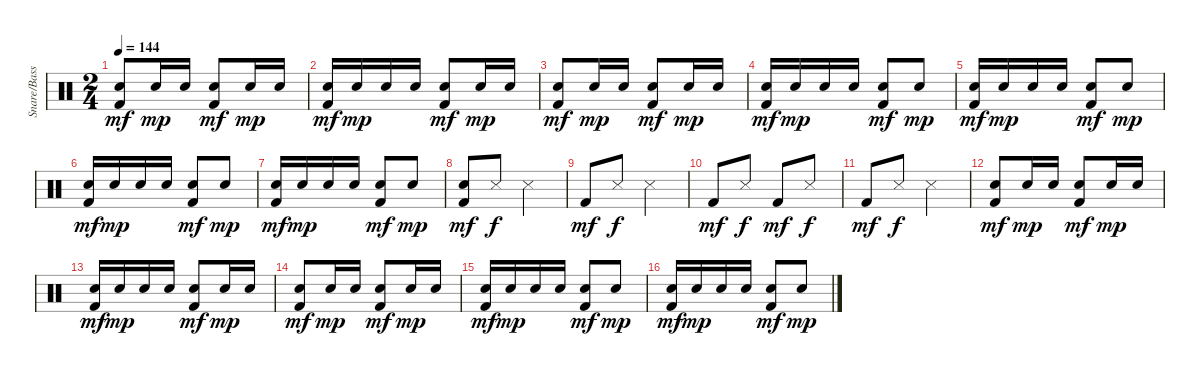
\track ("Snare/Bass Dr       " "Snare/Bass") {instrument percussion}
\staff {score}
\articulation defaults
\ts (2 4)
\tempo 144
\clef neutral
\ks c
("Snare (hit) 2" "Kick (hit) 2").8{dy mf} "Snare (hit) 2".16{dy mp} "Snare (hit) 2".16 ("Snare (hit) 2" "Kick (hit) 2").8{dy mf} "Snare (hit) 2".16{dy mp} "Snare (hit) 2".16 |
("Snare (hit) 2" "Kick (hit) 2").16{dy mf} "Snare (hit) 2".16{dy mp} "Snare (hit) 2".16 "Snare (hit) 2".16 ("Snare (hit) 2" "Kick (hit) 2").8{dy mf} "Snare (hit) 2".16{dy mp} "Snare (hit) 2".16 |
("Snare (hit) 2" "Kick (hit) 2").8{dy mf} "Snare (hit) 2".16{dy mp} "Snare (hit) 2".16 ("Snare (hit) 2" "Kick (hit) 2").8{dy mf} "Snare (hit) 2".16{dy mp} "Snare (hit) 2".16 |
("Snare (hit) 2" "Kick (hit) 2").16{dy mf} "Snare (hit) 2".16{dy mp} "Snare (hit) 2".16 "Snare (hit) 2".16 ("Snare (hit) 2" "Kick (hit) 2").8{dy mf} "Snare (hit) 2".8{dy mp} |
("Snare (hit) 2" "Kick (hit) 2").16{dy mf} "Snare (hit) 2".16{dy mp} "Snare (hit) 2".16 "Snare (hit) 2".16 ("Snare (hit) 2" "Kick (hit) 2").8{dy mf} "Snare (hit) 2".8{dy mp} |
("Snare (hit) 2" "Kick (hit) 2").16{dy mf} "Snare (hit) 2".16{dy mp} "Snare (hit) 2".16 "Snare (hit) 2".16 ("Snare (hit) 2" "Kick (hit) 2").8{dy mf} "Snare (hit) 2".8{dy mp} |
("Snare (hit) 2" "Kick (hit) 2").16{dy mf} "Snare (hit) 2".16{dy mp} "Snare (hit) 2".16 "Snare (hit) 2".16 ("Snare (hit) 2" "Kick (hit) 2").8{dy mf} "Snare (hit) 2".8{dy mp} |
("Snare (hit) 2" "Kick (hit) 2").8{dy mf} "Snare (side stick) 3".8{dy f} "Snare (side stick) 3".4 |
"Kick (hit) 2".8{dy mf} "Snare (side stick) 3".8{dy f} "Snare (side stick) 3".4 |
"Kick (hit) 2".8{dy mf} "Snare (side stick) 3".8{dy f} "Kick (hit) 2".8{dy mf} "Snare (side stick) 3".8{dy f} |
"Kick (hit) 2".8{dy mf} "Snare (side stick) 3".8{dy f} "Snare (side stick) 3".4 |
("Snare (hit) 2" "Kick (hit) 2").8{dy mf} "Snare (hit) 2".16{dy mp} "Snare (hit) 2".16 ("Snare (hit) 2" "Kick (hit) 2").8{dy mf} "Snare (hit) 2".16{dy mp} "Snare (hit) 2".16 |
("Snare (hit) 2" "Kick (hit) 2").16{dy mf} "Snare (hit) 2".16{dy mp} "Snare (hit) 2".16 "Snare (hit) 2".16 ("Snare (hit) 2" "Kick (hit) 2").8{dy mf} "Snare (hit) 2".16{dy mp} "Snare (hit) 2".16 |
("Snare (hit) 2" "Kick (hit) 2").8{dy mf} "Snare (hit) 2".16{dy mp} "Snare (hit) 2".16 ("Snare (hit) 2" "Kick (hit) 2").8{dy mf} "Snare (hit) 2".16{dy mp} "Snare (hit) 2".16 |
("Snare (hit) 2" "Kick (hit) 2").16{dy mf} "Snare (hit) 2".16{dy mp} "Snare (hit) 2".16 "Snare (hit) 2".16 ("Snare (hit) 2" "Kick (hit) 2").8{dy mf} "Snare (hit) 2".8{dy mp} |
("Snare (hit) 2" "Kick (hit) 2").16{dy mf} "Snare (hit) 2".16{dy mp} "Snare (hit) 2".16 "Snare (hit) 2".16 ("Snare (hit) 2" "Kick (hit) 2").8{dy mf} "Snare (hit) 2".8{dy mp}
